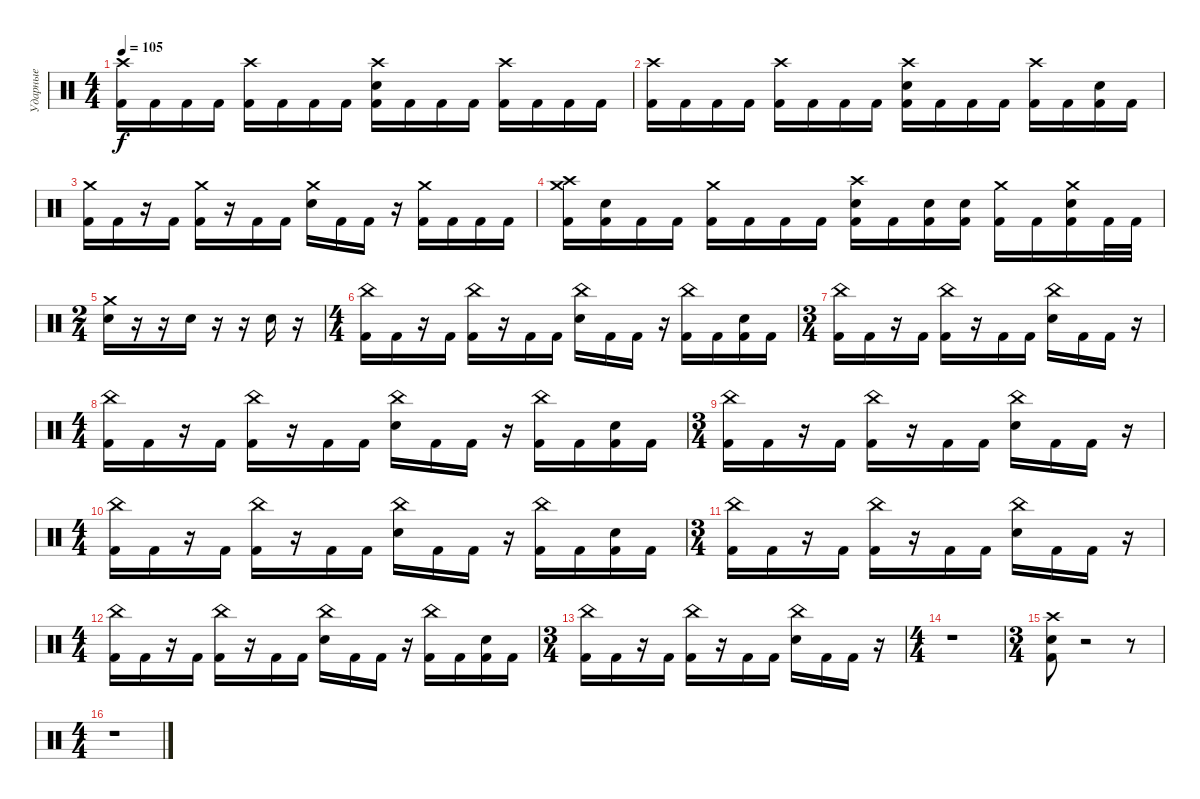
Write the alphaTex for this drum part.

\track ("Ударные" "Ударные") {instrument percussion}
\staff
\articulation defaults
\ts (4 4)
\tempo 105
\clef neutral
\ks c
("Crash high (hit)" "Kick (hit) 2").16{dy f} "Kick (hit) 2".16 "Kick (hit) 2".16 "Kick (hit) 2".16 ("Crash high (hit)" "Kick (hit) 2").16 "Kick (hit) 2".16 "Kick (hit) 2".16 "Kick (hit) 2".16 ("Crash high (hit)" "Electric Snare (hit)" "Kick (hit) 2").16 "Kick (hit) 2".16 "Kick (hit) 2".16 "Kick (hit) 2".16 ("Crash high (hit)" "Kick (hit) 2").16 "Kick (hit) 2".16 "Kick (hit) 2".16 "Kick (hit) 2".16 |
("Crash high (hit)" "Kick (hit) 2").16 "Kick (hit) 2".16 "Kick (hit) 2".16 "Kick (hit) 2".16 ("Crash high (hit)" "Kick (hit) 2").16 "Kick (hit) 2".16 "Kick (hit) 2".16 "Kick (hit) 2".16 ("Crash high (hit)" "Electric Snare (hit)" "Kick (hit) 2").16 "Kick (hit) 2".16 "Kick (hit) 2".16 "Kick (hit) 2".16 ("Crash high (hit)" "Kick (hit) 2").16 "Kick (hit) 2".16 ("Electric Snare (hit)" "Kick (hit) 2").16 "Kick (hit) 2".16 |
("Crash medium (hit)" "Kick (hit) 2").16 "Kick (hit) 2".16 r.16 "Kick (hit) 2".16 ("Crash medium (hit)" "Kick (hit) 2").16 r.16 "Kick (hit) 2".16 "Kick (hit) 2".16 ("Crash medium (hit)" "Electric Snare (hit)").16 "Kick (hit) 2".16 "Kick (hit) 2".16 r.16 ("Crash medium (hit)" "Kick (hit) 2").16 "Kick (hit) 2".16 "Kick (hit) 2".16 "Kick (hit) 2".16 |
("Crash high (hit)" "Crash medium (hit)" "Kick (hit) 2").16 ("Electric Snare (hit)" "Kick (hit) 2").16 "Kick (hit) 2".16 "Kick (hit) 2".16 ("Crash medium (hit)" "Kick (hit) 2").16 "Kick (hit) 2".16 "Kick (hit) 2".16 "Kick (hit) 2".16 ("Crash high (hit)" "Electric Snare (hit)" "Kick (hit) 2").16 "Kick (hit) 2".16 ("Electric Snare (hit)" "Kick (hit) 2").16 ("Electric Snare (hit)" "Kick (hit) 2").16 ("Crash medium (hit)" "Kick (hit) 2").16 "Kick (hit) 2".16 ("Crash medium (hit)" "Electric Snare (hit)" "Kick (hit) 2").16 "Kick (hit) 2".32 "Kick (hit) 2".32 |
\ts (2 4)
("Crash medium (hit)" "Electric Snare (hit)").16 r.16 r.16 "Electric Snare (hit)".16 r.16 r.16 "Electric Snare (hit)".16 r.16 |
\ts (4 4)
("China (hit)" "Kick (hit) 2").16 "Kick (hit) 2".16 r.16 "Kick (hit) 2".16 ("China (hit)" "Kick (hit) 2").16 r.16 "Kick (hit) 2".16 "Kick (hit) 2".16 ("China (hit)" "Electric Snare (hit)").16 "Kick (hit) 2".16 "Kick (hit) 2".16 r.16 ("China (hit)" "Kick (hit) 2").16 "Kick (hit) 2".16 ("Electric Snare (hit)" "Kick (hit) 2").16 "Kick (hit) 2".16 |
\ts (3 4)
("China (hit)" "Kick (hit) 2").16 "Kick (hit) 2".16 r.16 "Kick (hit) 2".16 ("China (hit)" "Kick (hit) 2").16 r.16 "Kick (hit) 2".16 "Kick (hit) 2".16 ("China (hit)" "Electric Snare (hit)").16 "Kick (hit) 2".16 "Kick (hit) 2".16 r.16 |
\ts (4 4)
("China (hit)" "Kick (hit) 2").16 "Kick (hit) 2".16 r.16 "Kick (hit) 2".16 ("China (hit)" "Kick (hit) 2").16 r.16 "Kick (hit) 2".16 "Kick (hit) 2".16 ("China (hit)" "Electric Snare (hit)").16 "Kick (hit) 2".16 "Kick (hit) 2".16 r.16 ("China (hit)" "Kick (hit) 2").16 "Kick (hit) 2".16 ("Electric Snare (hit)" "Kick (hit) 2").16 "Kick (hit) 2".16 |
\ts (3 4)
("China (hit)" "Kick (hit) 2").16 "Kick (hit) 2".16 r.16 "Kick (hit) 2".16 ("China (hit)" "Kick (hit) 2").16 r.16 "Kick (hit) 2".16 "Kick (hit) 2".16 ("China (hit)" "Electric Snare (hit)").16 "Kick (hit) 2".16 "Kick (hit) 2".16 r.16 |
\ts (4 4)
("China (hit)" "Kick (hit) 2").16 "Kick (hit) 2".16 r.16 "Kick (hit) 2".16 ("China (hit)" "Kick (hit) 2").16 r.16 "Kick (hit) 2".16 "Kick (hit) 2".16 ("China (hit)" "Electric Snare (hit)").16 "Kick (hit) 2".16 "Kick (hit) 2".16 r.16 ("China (hit)" "Kick (hit) 2").16 "Kick (hit) 2".16 ("Electric Snare (hit)" "Kick (hit) 2").16 "Kick (hit) 2".16 |
\ts (3 4)
("China (hit)" "Kick (hit) 2").16 "Kick (hit) 2".16 r.16 "Kick (hit) 2".16 ("China (hit)" "Kick (hit) 2").16 r.16 "Kick (hit) 2".16 "Kick (hit) 2".16 ("China (hit)" "Electric Snare (hit)").16 "Kick (hit) 2".16 "Kick (hit) 2".16 r.16 |
\ts (4 4)
("China (hit)" "Kick (hit) 2").16 "Kick (hit) 2".16 r.16 "Kick (hit) 2".16 ("China (hit)" "Kick (hit) 2").16 r.16 "Kick (hit) 2".16 "Kick (hit) 2".16 ("China (hit)" "Electric Snare (hit)").16 "Kick (hit) 2".16 "Kick (hit) 2".16 r.16 ("China (hit)" "Kick (hit) 2").16 "Kick (hit) 2".16 ("Electric Snare (hit)" "Kick (hit) 2").16 "Kick (hit) 2".16 |
\ts (3 4)
("China (hit)" "Kick (hit) 2").16 "Kick (hit) 2".16 r.16 "Kick (hit) 2".16 ("China (hit)" "Kick (hit) 2").16 r.16 "Kick (hit) 2".16 "Kick (hit) 2".16 ("China (hit)" "Electric Snare (hit)").16 "Kick (hit) 2".16 "Kick (hit) 2".16 r.16 |
\ts (4 4)
r.1 |
\ts (3 4)
("Crash high (hit)" "Snare (hit) 2" "Kick (hit) 2").8 r.2 r.8 |
\ts (4 4)
r.1
